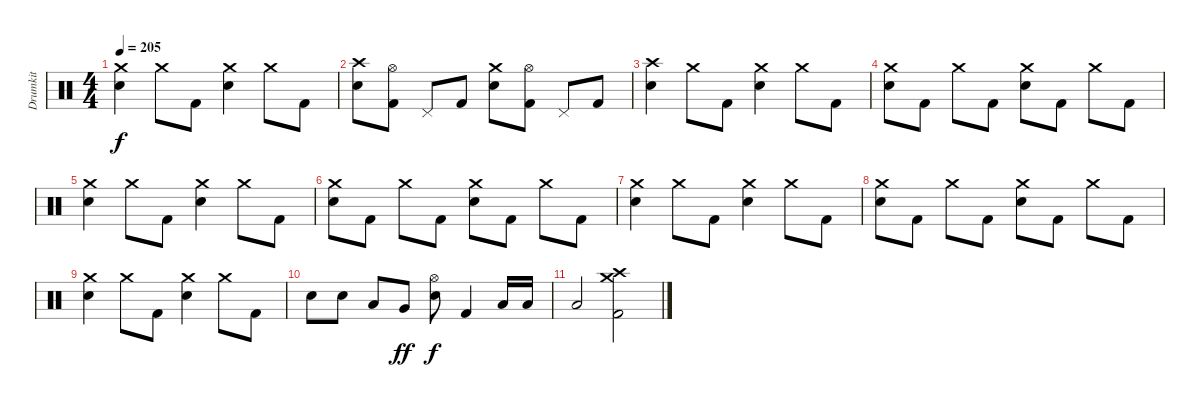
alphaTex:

\track ("Drumkit" "Drumkit") {instrument percussion}
\staff {score}
\articulation defaults
\ts (4 4)
\tempo 205
\clef neutral
\ks c
("Crash medium (hit)" "Electric Snare (hit)").4{dy f} "Crash medium (hit)".8 "Kick (hit) 2".8 ("Crash medium (hit)" "Electric Snare (hit)").4 "Crash medium (hit)".8 "Kick (hit) 2".8 |
("Crash high (hit)" "Electric Snare (hit)").8 ("Hi-Hat (open)" "Kick (hit) 2").8 "Pedal Hi-Hat (hit)".8 "Kick (hit) 2".8 ("Crash medium (hit)" "Electric Snare (hit)").8 ("Hi-Hat (open)" "Kick (hit) 2").8 "Pedal Hi-Hat (hit)".8 "Kick (hit) 2".8 |
("Crash high (hit)" "Electric Snare (hit)").4 "Crash medium (hit)".8 "Kick (hit) 2".8 ("Crash medium (hit)" "Electric Snare (hit)").4 "Crash medium (hit)".8 "Kick (hit) 2".8 |
("Crash medium (hit)" "Electric Snare (hit)").8 "Kick (hit) 2".8 "Crash medium (hit)".8 "Kick (hit) 2".8 ("Crash medium (hit)" "Electric Snare (hit)").8 "Kick (hit) 2".8 "Crash medium (hit)".8 "Kick (hit) 2".8 |
("Crash medium (hit)" "Electric Snare (hit)").4 "Crash medium (hit)".8 "Kick (hit) 2".8 ("Crash medium (hit)" "Electric Snare (hit)").4 "Crash medium (hit)".8 "Kick (hit) 2".8 |
("Crash medium (hit)" "Electric Snare (hit)").8 "Kick (hit) 2".8 "Crash medium (hit)".8 "Kick (hit) 2".8 ("Crash medium (hit)" "Electric Snare (hit)").8 "Kick (hit) 2".8 "Crash medium (hit)".8 "Kick (hit) 2".8 |
("Crash medium (hit)" "Electric Snare (hit)").4 "Crash medium (hit)".8 "Kick (hit) 2".8 ("Crash medium (hit)" "Electric Snare (hit)").4 "Crash medium (hit)".8 "Kick (hit) 2".8 |
("Crash medium (hit)" "Electric Snare (hit)").8 "Kick (hit) 2".8 "Crash medium (hit)".8 "Kick (hit) 2".8 ("Crash medium (hit)" "Electric Snare (hit)").8 "Kick (hit) 2".8 "Crash medium (hit)".8 "Kick (hit) 2".8 |
("Crash medium (hit)" "Electric Snare (hit)").4 "Crash medium (hit)".8 "Kick (hit) 2".8 ("Crash medium (hit)" "Electric Snare (hit)").4 "Crash medium (hit)".8 "Kick (hit) 2".8 |
"Electric Snare (hit)".8 "Electric Snare (hit)".8 "Low Tom (hit)".8 "Very Low Tom (hit)".8{dy ff} ("Hi-Hat (open)" "Electric Snare (hit)").8{dy f} "Kick (hit) 2".4 "Low Tom (hit)".16 "Low Tom (hit)".16 |
"Low Tom (hit)".2 ("Crash high (hit)" "Crash medium (hit)" "Kick (hit) 2").2
